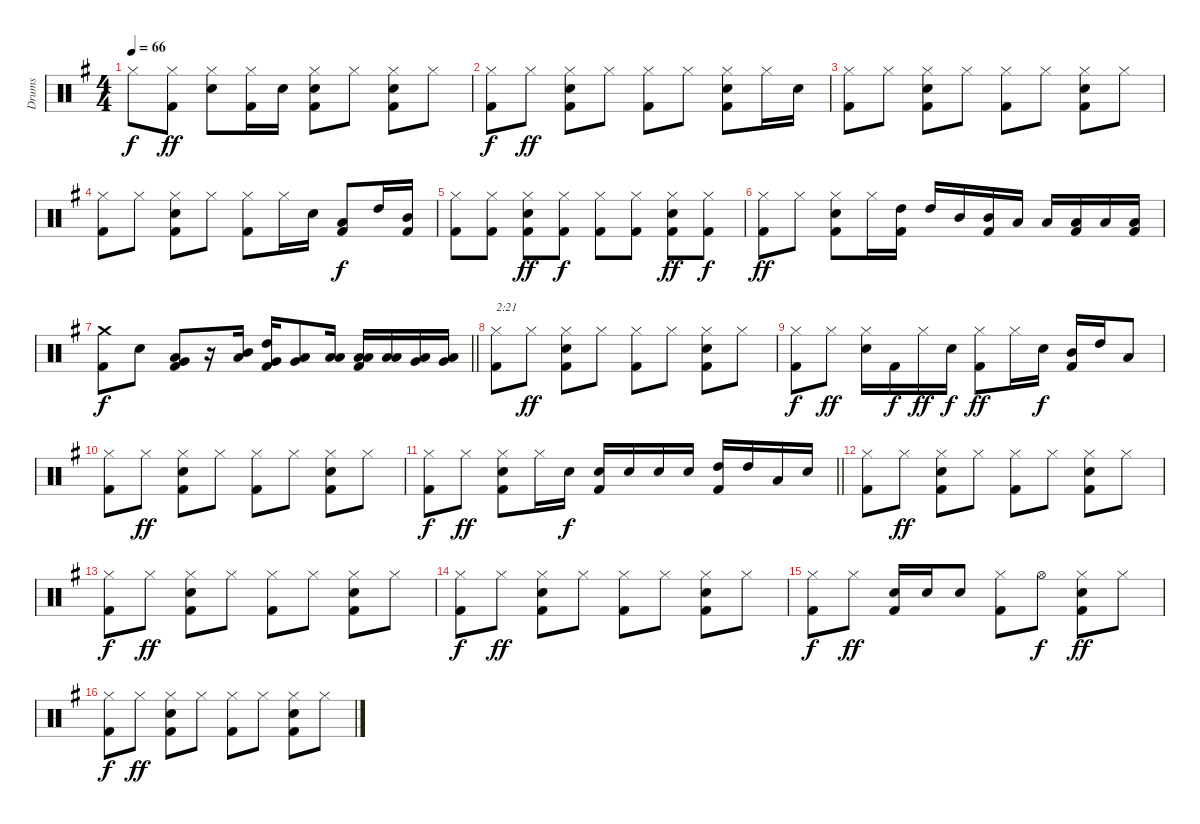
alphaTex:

\track ("Drums" "Drums") {instrument percussion}
\staff {score}
\articulation defaults
\ts (4 4)
\tempo 66
\clef neutral
\ks g "Hi-Hat (closed)".8{dy f}
("Hi-Hat (closed)" "Kick (hit) 2").8{dy ff} ("Hi-Hat (closed)" "Snare (hit) 2").8 ("Hi-Hat (closed)" "Kick (hit) 2").16 "Snare (hit) 2".16 ("Hi-Hat (closed)" "Snare (hit) 2" "Kick (hit) 2").8 "Hi-Hat (closed)".8 ("Hi-Hat (closed)" "Snare (hit) 2" "Kick (hit) 2").8 "Hi-Hat (closed)".8 |
("Hi-Hat (closed)" "Kick (hit) 2").8{dy f} "Hi-Hat (closed)".8{dy ff} ("Hi-Hat (closed)" "Snare (hit) 2" "Kick (hit) 2").8 "Hi-Hat (closed)".8 ("Hi-Hat (closed)" "Kick (hit) 2").8 "Hi-Hat (closed)".8 ("Hi-Hat (closed)" "Snare (hit) 2" "Kick (hit) 2").8 "Hi-Hat (closed)".16 "Snare (hit) 2".16 |
("Hi-Hat (closed)" "Kick (hit) 2").8 "Hi-Hat (closed)".8 ("Hi-Hat (closed)" "Snare (hit) 2" "Kick (hit) 2").8 "Hi-Hat (closed)".8 ("Hi-Hat (closed)" "Kick (hit) 2").8 "Hi-Hat (closed)".8 ("Hi-Hat (closed)" "Snare (hit) 2" "Kick (hit) 2").8 "Hi-Hat (closed)".8 |
("Hi-Hat (closed)" "Kick (hit) 2").8 "Hi-Hat (closed)".8 ("Hi-Hat (closed)" "Snare (hit) 2" "Kick (hit) 2").8 "Hi-Hat (closed)".8 ("Hi-Hat (closed)" "Kick (hit) 2").8 "Hi-Hat (closed)".16 "Snare (hit) 2".16 ("Low Tom (hit)" "Kick (hit) 2").8{dy f} "High Tom (hit)".16 ("Mid Tom (hit)" "Kick (hit) 2").16 |
("Hi-Hat (closed)" "Kick (hit) 2").8 ("Hi-Hat (closed)" "Kick (hit) 2").8 ("Hi-Hat (closed)" "Snare (hit) 2" "Kick (hit) 2").8{dy ff} ("Hi-Hat (closed)" "Kick (hit) 2").8{dy f} ("Hi-Hat (closed)" "Kick (hit) 2").8 ("Hi-Hat (closed)" "Kick (hit) 2").8 ("Hi-Hat (closed)" "Snare (hit) 2" "Kick (hit) 2").8{dy ff} ("Hi-Hat (closed)" "Kick (hit) 2").8{dy f} |
("Hi-Hat (closed)" "Kick (hit) 2").8{dy ff} "Hi-Hat (closed)".8 ("Hi-Hat (closed)" "Snare (hit) 2" "Kick (hit) 2").8 "Hi-Hat (closed)".16 ("High Tom (hit)" "Kick (hit) 2").16 "High Tom (hit)".16 "Mid Tom (hit)".16 ("Mid Tom (hit)" "Kick (hit) 2").16 "Low Tom (hit)".16 "Low Tom (hit)".16 ("Low Tom (hit)" "Kick (hit) 2").16 "Low Tom (hit)".16 ("Low Tom (hit)" "Kick (hit) 2").16 |
\barLineRight lightlight
("Crash medium (hit)" "Kick (hit) 2").8{dy f} "Snare (hit) 2".8 ("Very Low Tom (hit)" "Low Tom (hit)" "Kick (hit) 2").8 r.16 ("Mid Tom (hit)" "Low Tom (hit)").16 ("High Tom (hit)" "Very Low Tom (hit)" "Kick (hit) 2").16 ("Low Tom (hit)" "Very Low Tom (hit)").8 ("Low Tom (hit)" "Low Floor Tom (hit)").16 ("Low Tom (hit)" "Low Floor Tom (hit)" "Kick (hit) 2").16 ("Low Tom (hit)" "Low Floor Tom (hit)").16 ("Low Tom (hit)" "Very Low Tom (hit)").16 ("Low Tom (hit)" "Very Low Tom (hit)").16 |
("Hi-Hat (closed)" "Kick (hit) 2").8{txt "2:21"} "Hi-Hat (closed)".8{dy ff} ("Hi-Hat (closed)" "Snare (hit) 2" "Kick (hit) 2").8 "Hi-Hat (closed)".8 ("Hi-Hat (closed)" "Kick (hit) 2").8 "Hi-Hat (closed)".8 ("Hi-Hat (closed)" "Snare (hit) 2" "Kick (hit) 2").8 "Hi-Hat (closed)".8 |
("Hi-Hat (closed)" "Kick (hit) 2").8{dy f} "Hi-Hat (closed)".8{dy ff} ("Hi-Hat (closed)" "Snare (hit) 2").16 "Kick (hit) 2".16{dy f} "Hi-Hat (closed)".16{dy ff} "Snare (hit) 2".16{dy f} ("Hi-Hat (closed)" "Kick (hit) 2").8{dy ff} "Hi-Hat (closed)".16 "Snare (hit) 2".16{dy f} ("Mid Tom (hit)" "Kick (hit) 2").16 "High Tom (hit)".16 "Low Tom (hit)".8 |
("Hi-Hat (closed)" "Kick (hit) 2").8 "Hi-Hat (closed)".8{dy ff} ("Hi-Hat (closed)" "Snare (hit) 2" "Kick (hit) 2").8 "Hi-Hat (closed)".8 ("Hi-Hat (closed)" "Kick (hit) 2").8 "Hi-Hat (closed)".8 ("Hi-Hat (closed)" "Snare (hit) 2" "Kick (hit) 2").8 "Hi-Hat (closed)".8 |
\barLineRight lightlight
("Hi-Hat (closed)" "Kick (hit) 2").8{dy f} "Hi-Hat (closed)".8{dy ff} ("Hi-Hat (closed)" "Snare (hit) 2" "Kick (hit) 2").8 "Hi-Hat (closed)".16 "Snare (hit) 2".16{dy f} ("Snare (hit) 2" "Kick (hit) 2").16 "Snare (hit) 2".16 "Snare (hit) 2".16 "Snare (hit) 2".16 ("High Tom (hit)" "Kick (hit) 2").16 "High Tom (hit)".16 "Low Tom (hit)".16 "Snare (hit) 2".16 |
("Hi-Hat (closed)" "Kick (hit) 2").8 "Hi-Hat (closed)".8{dy ff} ("Hi-Hat (closed)" "Snare (hit) 2" "Kick (hit) 2").8 "Hi-Hat (closed)".8 ("Hi-Hat (closed)" "Kick (hit) 2").8 "Hi-Hat (closed)".8 ("Hi-Hat (closed)" "Snare (hit) 2" "Kick (hit) 2").8 "Hi-Hat (closed)".8 |
("Hi-Hat (closed)" "Kick (hit) 2").8{dy f} "Hi-Hat (closed)".8{dy ff} ("Hi-Hat (closed)" "Snare (hit) 2" "Kick (hit) 2").8 "Hi-Hat (closed)".8 ("Hi-Hat (closed)" "Kick (hit) 2").8 "Hi-Hat (closed)".8 ("Hi-Hat (closed)" "Snare (hit) 2" "Kick (hit) 2").8 "Hi-Hat (closed)".8 |
("Hi-Hat (closed)" "Kick (hit) 2").8{dy f} "Hi-Hat (closed)".8{dy ff} ("Hi-Hat (closed)" "Snare (hit) 2" "Kick (hit) 2").8 "Hi-Hat (closed)".8 ("Hi-Hat (closed)" "Kick (hit) 2").8 "Hi-Hat (closed)".8 ("Hi-Hat (closed)" "Snare (hit) 2" "Kick (hit) 2").8 "Hi-Hat (closed)".8 |
("Hi-Hat (closed)" "Kick (hit) 2").8{dy f} "Hi-Hat (closed)".8{dy ff} ("Snare (hit) 2" "Kick (hit) 2").16 "Snare (hit) 2".16 "Snare (hit) 2".8 ("Hi-Hat (closed)" "Kick (hit) 2").8 "Hi-Hat (open)".8{dy f} ("Hi-Hat (closed)" "Snare (hit) 2" "Kick (hit) 2").8{dy ff} "Hi-Hat (closed)".8 |
("Hi-Hat (closed)" "Kick (hit) 2").8{dy f} "Hi-Hat (closed)".8{dy ff} ("Hi-Hat (closed)" "Snare (hit) 2" "Kick (hit) 2").8 "Hi-Hat (closed)".8 ("Hi-Hat (closed)" "Kick (hit) 2").8 "Hi-Hat (closed)".8 ("Hi-Hat (closed)" "Snare (hit) 2" "Kick (hit) 2").8 "Hi-Hat (closed)".8
